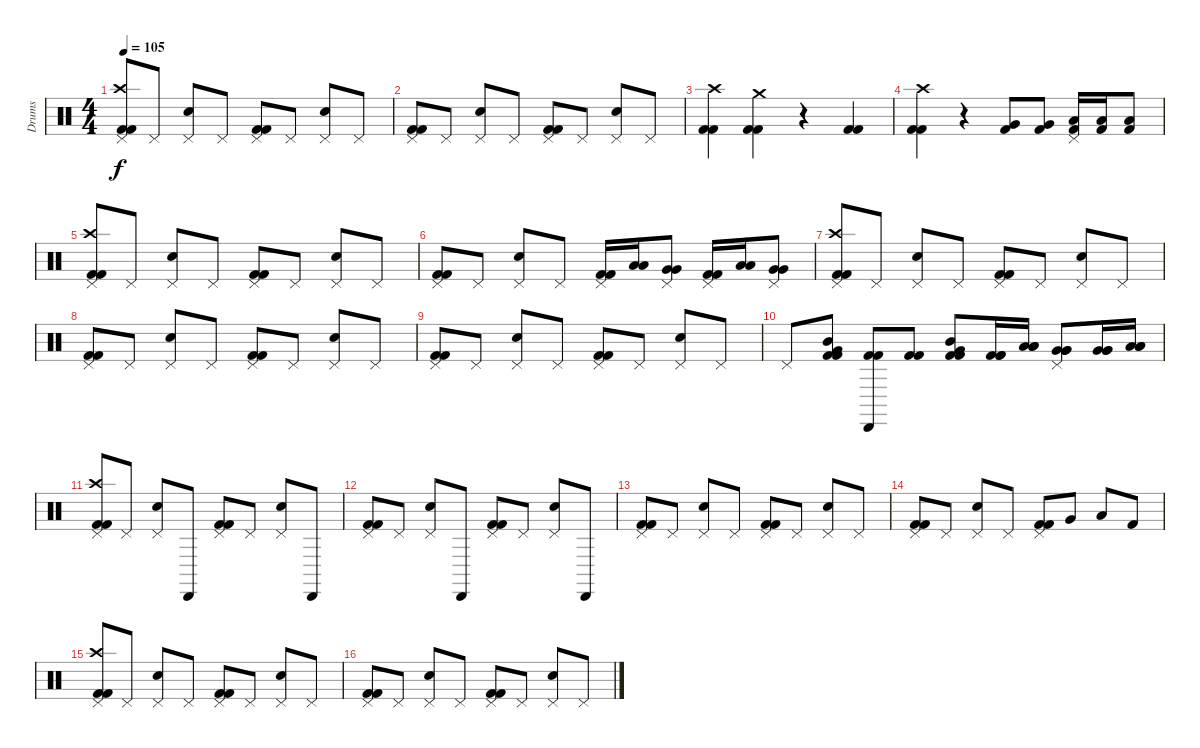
\track ("Drums" "Drums") {instrument percussion}
\staff {score}
\articulation defaults
\ts (4 4)
\tempo 105
\clef neutral
\ks c
("Pedal Hi-Hat (hit)" "Crash high (hit)" "Kick (hit) 2" "Kick (hit) 2").8{dy f} "Pedal Hi-Hat (hit)".8 ("Pedal Hi-Hat (hit)" "Electric Snare (hit)").8 "Pedal Hi-Hat (hit)".8 ("Pedal Hi-Hat (hit)" "Kick (hit) 2" "Kick (hit) 2").8 "Pedal Hi-Hat (hit)".8 ("Pedal Hi-Hat (hit)" "Electric Snare (hit)").8 "Pedal Hi-Hat (hit)".8 |
("Pedal Hi-Hat (hit)" "Kick (hit) 2" "Kick (hit) 2").8 "Pedal Hi-Hat (hit)".8 ("Pedal Hi-Hat (hit)" "Electric Snare (hit)").8 "Pedal Hi-Hat (hit)".8 ("Pedal Hi-Hat (hit)" "Kick (hit) 2" "Kick (hit) 2").8 "Pedal Hi-Hat (hit)".8 ("Pedal Hi-Hat (hit)" "Electric Snare (hit)").8 "Pedal Hi-Hat (hit)".8 |
("Crash high (hit)" "Kick (hit) 2" "Kick (hit) 2").4 ("Crash medium (hit)" "Kick (hit) 2" "Kick (hit) 2").4 r.4 ("Kick (hit) 2" "Kick (hit) 2").4 |
("Crash high (hit)" "Kick (hit) 2" "Kick (hit) 2").4 r.4 ("Very Low Tom (hit)" "Kick (hit) 2").8 ("Very Low Tom (hit)" "Kick (hit) 2").8 ("Pedal Hi-Hat (hit)" "Low Floor Tom (hit)" "Kick (hit) 2").16 ("Low Floor Tom (hit)" "Kick (hit) 2").16 ("Low Floor Tom (hit)" "Kick (hit) 2").8 |
("Pedal Hi-Hat (hit)" "Crash high (hit)" "Kick (hit) 2" "Kick (hit) 2").8 "Pedal Hi-Hat (hit)".8 ("Pedal Hi-Hat (hit)" "Electric Snare (hit)").8 "Pedal Hi-Hat (hit)".8 ("Pedal Hi-Hat (hit)" "Kick (hit) 2" "Kick (hit) 2").8 "Pedal Hi-Hat (hit)".8 ("Pedal Hi-Hat (hit)" "Electric Snare (hit)").8 "Pedal Hi-Hat (hit)".8 |
("Pedal Hi-Hat (hit)" "Kick (hit) 2" "Kick (hit) 2").8 "Pedal Hi-Hat (hit)".8 ("Pedal Hi-Hat (hit)" "Electric Snare (hit)").8 "Pedal Hi-Hat (hit)".8 ("Pedal Hi-Hat (hit)" "Kick (hit) 2" "Kick (hit) 2").16 ("Low Floor Tom (hit)" "Low Floor Tom (hit)").16 ("Pedal Hi-Hat (hit)" "Very Low Tom (hit)" "Very Low Tom (hit)").8 ("Pedal Hi-Hat (hit)" "Kick (hit) 2" "Kick (hit) 2").16 ("Low Floor Tom (hit)" "Low Floor Tom (hit)").16 ("Pedal Hi-Hat (hit)" "Very Low Tom (hit)" "Very Low Tom (hit)").8 |
("Pedal Hi-Hat (hit)" "Crash high (hit)" "Kick (hit) 2" "Kick (hit) 2").8 "Pedal Hi-Hat (hit)".8 ("Pedal Hi-Hat (hit)" "Electric Snare (hit)").8 "Pedal Hi-Hat (hit)".8 ("Pedal Hi-Hat (hit)" "Kick (hit) 2" "Kick (hit) 2").8 "Pedal Hi-Hat (hit)".8 ("Pedal Hi-Hat (hit)" "Electric Snare (hit)").8 "Pedal Hi-Hat (hit)".8 |
("Pedal Hi-Hat (hit)" "Kick (hit) 2" "Kick (hit) 2").8 "Pedal Hi-Hat (hit)".8 ("Pedal Hi-Hat (hit)" "Electric Snare (hit)").8 "Pedal Hi-Hat (hit)".8 ("Pedal Hi-Hat (hit)" "Kick (hit) 2" "Kick (hit) 2").8 "Pedal Hi-Hat (hit)".8 ("Pedal Hi-Hat (hit)" "Electric Snare (hit)").8 "Pedal Hi-Hat (hit)".8 |
("Pedal Hi-Hat (hit)" "Kick (hit) 2" "Kick (hit) 2").8 "Pedal Hi-Hat (hit)".8 ("Pedal Hi-Hat (hit)" "Electric Snare (hit)").8 "Pedal Hi-Hat (hit)".8 ("Pedal Hi-Hat (hit)" "Kick (hit) 2" "Kick (hit) 2").8 "Pedal Hi-Hat (hit)".8 ("Pedal Hi-Hat (hit)" "Electric Snare (hit)").8 "Pedal Hi-Hat (hit)".8 |
"Pedal Hi-Hat (hit)".8 ("Mid Tom (hit)" "Kick (hit) 2" "Kick (hit) 2" "Very Low Tom (hit)").8 ("Cabasa (hit)" "Kick (hit) 2" "Kick (hit) 2").8 ("Kick (hit) 2" "Kick (hit) 2").8 ("Mid Tom (hit)" "Kick (hit) 2" "Kick (hit) 2" "Very Low Tom (hit)").8 ("Kick (hit) 2" "Kick (hit) 2" "Kick (hit) 2").16 ("Low Floor Tom (hit)" "Low Floor Tom (hit)" "Low Floor Tom (hit)").16 ("Pedal Hi-Hat (hit)" "Very Low Tom (hit)" "Very Low Tom (hit)" "Very Low Tom (hit)").8 ("Very Low Tom (hit)" "Very Low Tom (hit)" "Very Low Tom (hit)").16 ("Low Floor Tom (hit)" "Low Floor Tom (hit)" "Low Floor Tom (hit)").16 |
("Pedal Hi-Hat (hit)" "Crash high (hit)" "Kick (hit) 2" "Kick (hit) 2").8 "Pedal Hi-Hat (hit)".8 ("Pedal Hi-Hat (hit)" "Electric Snare (hit)").8 "Cabasa (hit)".8 ("Pedal Hi-Hat (hit)" "Kick (hit) 2" "Kick (hit) 2").8 "Pedal Hi-Hat (hit)".8 ("Pedal Hi-Hat (hit)" "Electric Snare (hit)").8 "Cabasa (hit)".8 |
("Pedal Hi-Hat (hit)" "Kick (hit) 2" "Kick (hit) 2").8 "Pedal Hi-Hat (hit)".8 ("Pedal Hi-Hat (hit)" "Electric Snare (hit)").8 "Cabasa (hit)".8 ("Pedal Hi-Hat (hit)" "Kick (hit) 2" "Kick (hit) 2").8 "Pedal Hi-Hat (hit)".8 ("Pedal Hi-Hat (hit)" "Electric Snare (hit)").8 "Cabasa (hit)".8 |
("Pedal Hi-Hat (hit)" "Kick (hit) 2" "Kick (hit) 2").8 "Pedal Hi-Hat (hit)".8 ("Pedal Hi-Hat (hit)" "Electric Snare (hit)").8 "Pedal Hi-Hat (hit)".8 ("Pedal Hi-Hat (hit)" "Kick (hit) 2" "Kick (hit) 2").8 "Pedal Hi-Hat (hit)".8 ("Pedal Hi-Hat (hit)" "Electric Snare (hit)").8 "Pedal Hi-Hat (hit)".8 |
("Pedal Hi-Hat (hit)" "Kick (hit) 2" "Kick (hit) 2").8 "Pedal Hi-Hat (hit)".8 ("Pedal Hi-Hat (hit)" "Electric Snare (hit)").8 "Pedal Hi-Hat (hit)".8 ("Pedal Hi-Hat (hit)" "Kick (hit) 2" "Kick (hit) 2").8 "Very Low Tom (hit)".8 "Low Floor Tom (hit)".8 "Kick (hit) 2".8 |
("Pedal Hi-Hat (hit)" "Crash high (hit)" "Kick (hit) 2" "Kick (hit) 2").8 "Pedal Hi-Hat (hit)".8 ("Pedal Hi-Hat (hit)" "Electric Snare (hit)").8 "Pedal Hi-Hat (hit)".8 ("Pedal Hi-Hat (hit)" "Kick (hit) 2" "Kick (hit) 2").8 "Pedal Hi-Hat (hit)".8 ("Pedal Hi-Hat (hit)" "Electric Snare (hit)").8 "Pedal Hi-Hat (hit)".8 |
("Pedal Hi-Hat (hit)" "Kick (hit) 2" "Kick (hit) 2").8 "Pedal Hi-Hat (hit)".8 ("Pedal Hi-Hat (hit)" "Electric Snare (hit)").8 "Pedal Hi-Hat (hit)".8 ("Pedal Hi-Hat (hit)" "Kick (hit) 2" "Kick (hit) 2").8 "Pedal Hi-Hat (hit)".8 ("Pedal Hi-Hat (hit)" "Electric Snare (hit)").8 "Pedal Hi-Hat (hit)".8
